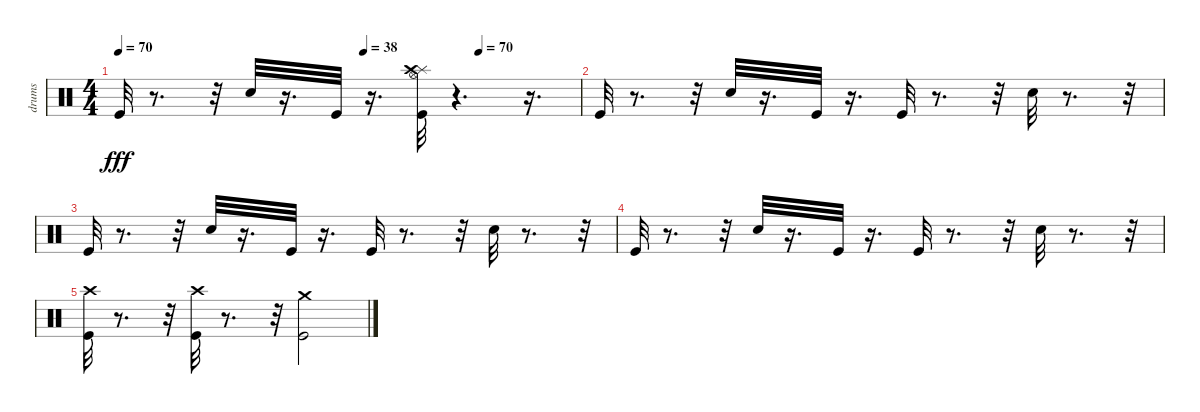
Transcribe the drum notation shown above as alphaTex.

\track ("drums" "drums") {instrument percussion}
\staff {score}
\articulation defaults
\ts (4 4)
\tempo 70
\tempo (38 0.53125)
\tempo (70 0.78125)
\clef neutral
\ks c "Kick (hit)".32{dy fff}
r.8{d} r.32 "Snare (hit) 2".32 r.16{d} "Kick (hit)".32 r.16{d} ("Kick (hit)" "Splash (hit)" "Hi-Hat (open)" "Crash high (hit)").32 r.4{d} r.16{d} |
"Kick (hit)".32 r.8{d} r.32 "Snare (hit) 2".32 r.16{d} "Kick (hit)".32 r.16{d} "Kick (hit)".32 r.8{d} r.32 "Snare (hit) 2".32 r.8{d} r.32 |
"Kick (hit)".32 r.8{d} r.32 "Snare (hit) 2".32 r.16{d} "Kick (hit)".32 r.16{d} "Kick (hit)".32 r.8{d} r.32 "Snare (hit) 2".32 r.8{d} r.32 |
"Kick (hit)".32 r.8{d} r.32 "Snare (hit) 2".32 r.16{d} "Kick (hit)".32 r.16{d} "Kick (hit)".32 r.8{d} r.32 "Snare (hit) 2".32 r.8{d} r.32 |
("Kick (hit)" "Crash high (hit)").32 r.8{d} r.32 ("Kick (hit)" "Crash high (hit)").32 r.8{d} r.32 ("Kick (hit)" "Crash medium (hit)").2
